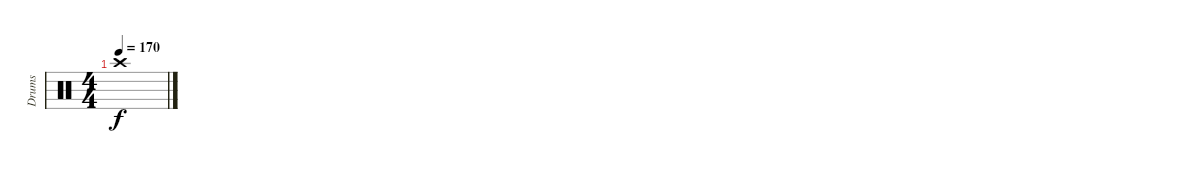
\track ("Drums" "Drums") {instrument percussion}
\staff {score}
\articulation defaults
\ts (4 4)
\tempo 170
\clef neutral
\ks c "Crash high (hit)".1{dy f}
